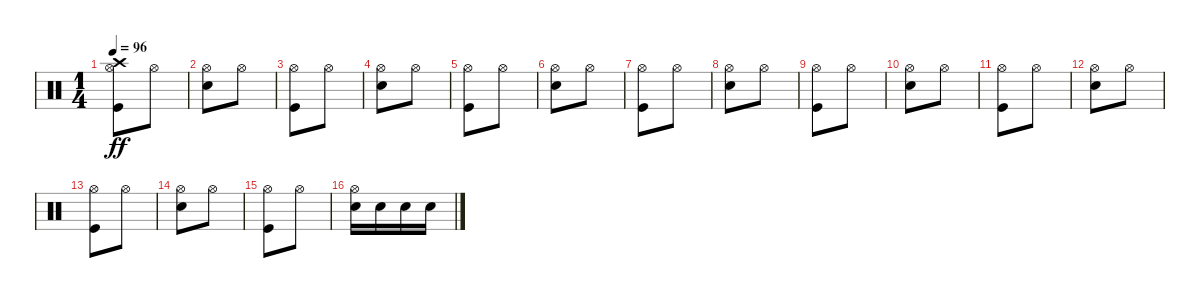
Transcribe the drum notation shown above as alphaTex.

\track "" {instrument percussion}
\staff {score}
\articulation defaults
\ts (1 4)
\tempo 96
\clef neutral
\ks c
("Kick (hit)" "Hi-Hat (open)" "Crash high (hit)").8{dy ff} "Hi-Hat (open)".8 |
("Snare (hit) 2" "Hi-Hat (open)").8 "Hi-Hat (open)".8 |
("Kick (hit)" "Hi-Hat (open)").8 "Hi-Hat (open)".8 |
("Snare (hit) 2" "Hi-Hat (open)").8 "Hi-Hat (open)".8 |
("Kick (hit)" "Hi-Hat (open)").8 "Hi-Hat (open)".8 |
("Snare (hit) 2" "Hi-Hat (open)").8 "Hi-Hat (open)".8 |
("Kick (hit)" "Hi-Hat (open)").8 "Hi-Hat (open)".8 |
("Snare (hit) 2" "Hi-Hat (open)").8 "Hi-Hat (open)".8 |
("Kick (hit)" "Hi-Hat (open)").8 "Hi-Hat (open)".8 |
("Snare (hit) 2" "Hi-Hat (open)").8 "Hi-Hat (open)".8 |
("Kick (hit)" "Hi-Hat (open)").8 "Hi-Hat (open)".8 |
("Snare (hit) 2" "Hi-Hat (open)").8 "Hi-Hat (open)".8 |
("Kick (hit)" "Hi-Hat (open)").8 "Hi-Hat (open)".8 |
("Snare (hit) 2" "Hi-Hat (open)").8 "Hi-Hat (open)".8 |
("Kick (hit)" "Hi-Hat (open)").8 "Hi-Hat (open)".8 |
("Snare (hit) 2" "Hi-Hat (open)").16 "Snare (hit) 2".16 "Snare (hit) 2".16 "Snare (hit) 2".16
